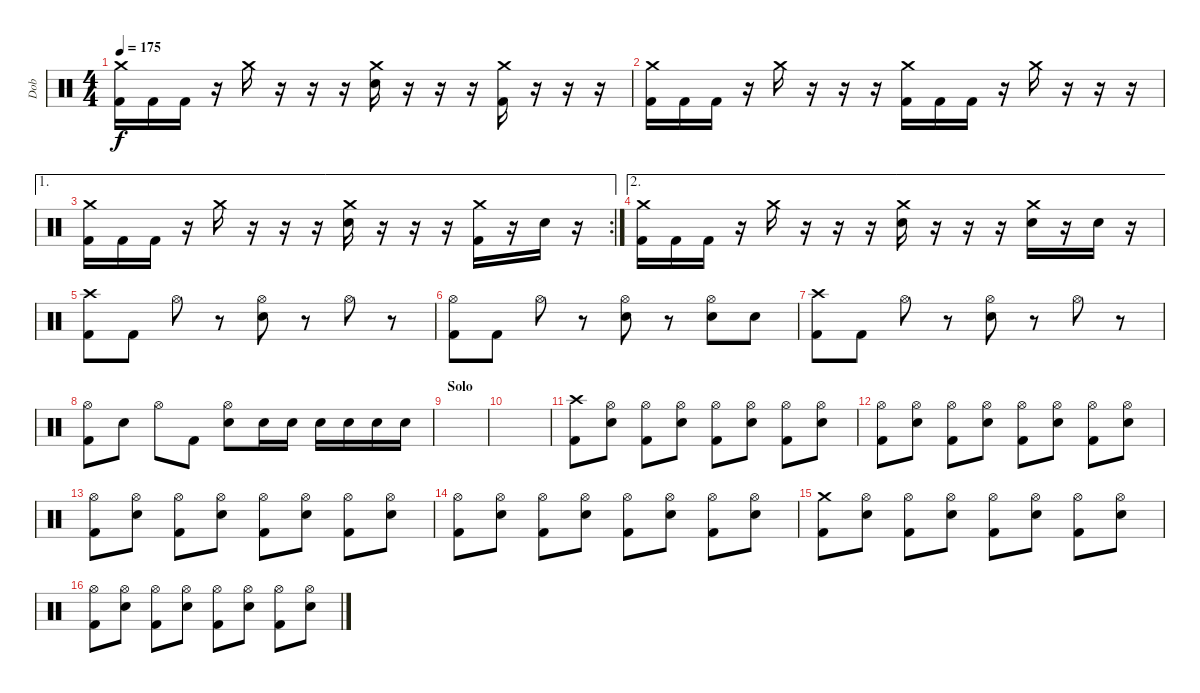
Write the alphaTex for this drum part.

\track ("Dob" "Dob") {instrument percussion}
\staff {score}
\articulation defaults
\ts (4 4)
\tempo 175
\clef neutral
\ks c
("Crash medium (hit)" "Kick (hit) 2").16{dy f} "Kick (hit) 2".16 "Kick (hit) 2".16 r.16 "Crash medium (hit)".16 r.16 r.16 r.16 ("Crash medium (hit)" "Snare (hit) 2").16 r.16 r.16 r.16 ("Crash medium (hit)" "Kick (hit) 2").16 r.16 r.16 r.16 |
("Crash medium (hit)" "Kick (hit) 2").16 "Kick (hit) 2".16 "Kick (hit) 2".16 r.16 "Crash medium (hit)".16 r.16 r.16 r.16 ("Crash medium (hit)" "Kick (hit) 2").16 "Kick (hit) 2".16 "Kick (hit) 2".16 r.16 "Crash medium (hit)".16 r.16 r.16 r.16 |
\ae 1
\rc 2
("Crash medium (hit)" "Kick (hit) 2").16 "Kick (hit) 2".16 "Kick (hit) 2".16 r.16 "Crash medium (hit)".16 r.16 r.16 r.16 ("Crash medium (hit)" "Snare (hit) 2").16 r.16 r.16 r.16 ("Crash medium (hit)" "Kick (hit) 2").16 r.16 "Snare (hit) 2".16 r.16 |
\ae 2
("Crash medium (hit)" "Kick (hit) 2").16 "Kick (hit) 2".16 "Kick (hit) 2".16 r.16 "Crash medium (hit)".16 r.16 r.16 r.16 ("Crash medium (hit)" "Snare (hit) 2").16 r.16 r.16 r.16 ("Crash medium (hit)" "Snare (hit) 2").16 r.16 "Snare (hit) 2".16 r.16 |
("Crash high (hit)" "Kick (hit) 2").8 "Kick (hit) 2".8 "Hi-Hat (open)".8 r.8 ("Hi-Hat (open)" "Snare (hit) 2").8 r.8 "Hi-Hat (open)".8 r.8 |
("Hi-Hat (open)" "Kick (hit) 2").8 "Kick (hit) 2".8 "Hi-Hat (open)".8 r.8 ("Hi-Hat (open)" "Snare (hit) 2").8 r.8 ("Hi-Hat (open)" "Snare (hit) 2").8 "Snare (hit) 2".8 |
("Crash high (hit)" "Kick (hit) 2").8 "Kick (hit) 2".8 "Hi-Hat (open)".8 r.8 ("Hi-Hat (open)" "Snare (hit) 2").8 r.8 "Hi-Hat (open)".8 r.8 |
("Hi-Hat (open)" "Kick (hit) 2").8 "Snare (hit) 2".8 "Hi-Hat (open)".8 "Kick (hit) 2".8 ("Hi-Hat (open)" "Snare (hit) 2").8 "Snare (hit) 2".16 "Snare (hit) 2".16 "Snare (hit) 2".16 "Snare (hit) 2".16 "Snare (hit) 2".16 "Snare (hit) 2".16 |
\section ("" "Solo")
|
|
("Crash high (hit)" "Kick (hit) 2").8 ("Hi-Hat (open)" "Snare (hit) 2").8 ("Hi-Hat (open)" "Kick (hit) 2").8 ("Hi-Hat (open)" "Snare (hit) 2").8 ("Hi-Hat (open)" "Kick (hit) 2").8 ("Hi-Hat (open)" "Snare (hit) 2").8 ("Hi-Hat (open)" "Kick (hit) 2").8 ("Hi-Hat (open)" "Snare (hit) 2").8 |
("Hi-Hat (open)" "Kick (hit) 2").8 ("Hi-Hat (open)" "Snare (hit) 2").8 ("Hi-Hat (open)" "Kick (hit) 2").8 ("Hi-Hat (open)" "Snare (hit) 2").8 ("Hi-Hat (open)" "Kick (hit) 2").8 ("Hi-Hat (open)" "Snare (hit) 2").8 ("Hi-Hat (open)" "Kick (hit) 2").8 ("Hi-Hat (open)" "Snare (hit) 2").8 |
("Hi-Hat (open)" "Kick (hit) 2").8 ("Hi-Hat (open)" "Snare (hit) 2").8 ("Hi-Hat (open)" "Kick (hit) 2").8 ("Hi-Hat (open)" "Snare (hit) 2").8 ("Hi-Hat (open)" "Kick (hit) 2").8 ("Hi-Hat (open)" "Snare (hit) 2").8 ("Hi-Hat (open)" "Kick (hit) 2").8 ("Hi-Hat (open)" "Snare (hit) 2").8 |
("Hi-Hat (open)" "Kick (hit) 2").8 ("Hi-Hat (open)" "Snare (hit) 2").8 ("Hi-Hat (open)" "Kick (hit) 2").8 ("Hi-Hat (open)" "Snare (hit) 2").8 ("Hi-Hat (open)" "Kick (hit) 2").8 ("Hi-Hat (open)" "Snare (hit) 2").8 ("Hi-Hat (open)" "Kick (hit) 2").8 ("Hi-Hat (open)" "Snare (hit) 2").8 |
("Crash medium (hit)" "Kick (hit) 2").8 ("Hi-Hat (open)" "Snare (hit) 2").8 ("Hi-Hat (open)" "Kick (hit) 2").8 ("Hi-Hat (open)" "Snare (hit) 2").8 ("Hi-Hat (open)" "Kick (hit) 2").8 ("Hi-Hat (open)" "Snare (hit) 2").8 ("Hi-Hat (open)" "Kick (hit) 2").8 ("Hi-Hat (open)" "Snare (hit) 2").8 |
("Hi-Hat (open)" "Kick (hit) 2").8 ("Hi-Hat (open)" "Snare (hit) 2").8 ("Hi-Hat (open)" "Kick (hit) 2").8 ("Hi-Hat (open)" "Snare (hit) 2").8 ("Hi-Hat (open)" "Kick (hit) 2").8 ("Hi-Hat (open)" "Snare (hit) 2").8 ("Hi-Hat (open)" "Kick (hit) 2").8 ("Hi-Hat (open)" "Snare (hit) 2").8
